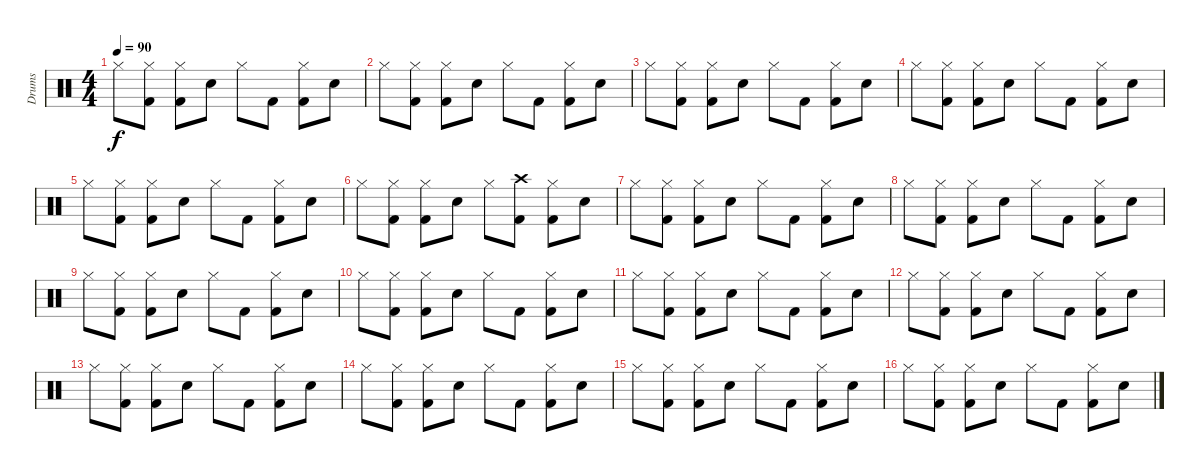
\track ("Drums" "Drums") {instrument percussion}
\staff {score}
\articulation defaults
\ts (4 4)
\tempo 90
\clef neutral
\ks c "Hi-Hat (closed)".8{dy f}
("Hi-Hat (closed)" "Kick (hit) 2").8 ("Hi-Hat (closed)" "Kick (hit) 2").8 "Snare (hit) 2".8 "Hi-Hat (closed)".8 "Kick (hit) 2".8 ("Hi-Hat (closed)" "Kick (hit) 2").8 "Snare (hit) 2".8 |
"Hi-Hat (closed)".8 ("Hi-Hat (closed)" "Kick (hit) 2").8 ("Hi-Hat (closed)" "Kick (hit) 2").8 "Snare (hit) 2".8 "Hi-Hat (closed)".8 "Kick (hit) 2".8 ("Hi-Hat (closed)" "Kick (hit) 2").8 "Snare (hit) 2".8 |
"Hi-Hat (closed)".8 ("Hi-Hat (closed)" "Kick (hit) 2").8 ("Hi-Hat (closed)" "Kick (hit) 2").8 "Snare (hit) 2".8 "Hi-Hat (closed)".8 "Kick (hit) 2".8 ("Hi-Hat (closed)" "Kick (hit) 2").8 "Snare (hit) 2".8 |
"Hi-Hat (closed)".8 ("Hi-Hat (closed)" "Kick (hit) 2").8 ("Hi-Hat (closed)" "Kick (hit) 2").8 "Snare (hit) 2".8 "Hi-Hat (closed)".8 "Kick (hit) 2".8 ("Hi-Hat (closed)" "Kick (hit) 2").8 "Snare (hit) 2".8 |
"Hi-Hat (closed)".8 ("Hi-Hat (closed)" "Kick (hit) 2").8 ("Hi-Hat (closed)" "Kick (hit) 2").8 "Snare (hit) 2".8 "Hi-Hat (closed)".8 "Kick (hit) 2".8 ("Hi-Hat (closed)" "Kick (hit) 2").8 "Snare (hit) 2".8 |
"Hi-Hat (closed)".8 ("Hi-Hat (closed)" "Kick (hit) 2").8 ("Hi-Hat (closed)" "Kick (hit) 2").8 "Snare (hit) 2".8 "Hi-Hat (closed)".8 ("Crash high (hit)" "Kick (hit) 2").8 ("Hi-Hat (closed)" "Kick (hit) 2").8 "Snare (hit) 2".8 |
"Hi-Hat (closed)".8 ("Hi-Hat (closed)" "Kick (hit) 2").8 ("Hi-Hat (closed)" "Kick (hit) 2").8 "Snare (hit) 2".8 "Hi-Hat (closed)".8 "Kick (hit) 2".8 ("Hi-Hat (closed)" "Kick (hit) 2").8 "Snare (hit) 2".8 |
"Hi-Hat (closed)".8 ("Hi-Hat (closed)" "Kick (hit) 2").8 ("Hi-Hat (closed)" "Kick (hit) 2").8 "Snare (hit) 2".8 "Hi-Hat (closed)".8 "Kick (hit) 2".8 ("Hi-Hat (closed)" "Kick (hit) 2").8 "Snare (hit) 2".8 |
"Hi-Hat (closed)".8 ("Hi-Hat (closed)" "Kick (hit) 2").8 ("Hi-Hat (closed)" "Kick (hit) 2").8 "Snare (hit) 2".8 "Hi-Hat (closed)".8 "Kick (hit) 2".8 ("Hi-Hat (closed)" "Kick (hit) 2").8 "Snare (hit) 2".8 |
"Hi-Hat (closed)".8 ("Hi-Hat (closed)" "Kick (hit) 2").8 ("Hi-Hat (closed)" "Kick (hit) 2").8 "Snare (hit) 2".8 "Hi-Hat (closed)".8 "Kick (hit) 2".8 ("Hi-Hat (closed)" "Kick (hit) 2").8 "Snare (hit) 2".8 |
"Hi-Hat (closed)".8 ("Hi-Hat (closed)" "Kick (hit) 2").8 ("Hi-Hat (closed)" "Kick (hit) 2").8 "Snare (hit) 2".8 "Hi-Hat (closed)".8 "Kick (hit) 2".8 ("Hi-Hat (closed)" "Kick (hit) 2").8 "Snare (hit) 2".8 |
"Hi-Hat (closed)".8 ("Hi-Hat (closed)" "Kick (hit) 2").8 ("Hi-Hat (closed)" "Kick (hit) 2").8 "Snare (hit) 2".8 "Hi-Hat (closed)".8 "Kick (hit) 2".8 ("Hi-Hat (closed)" "Kick (hit) 2").8 "Snare (hit) 2".8 |
"Hi-Hat (closed)".8 ("Hi-Hat (closed)" "Kick (hit) 2").8 ("Hi-Hat (closed)" "Kick (hit) 2").8 "Snare (hit) 2".8 "Hi-Hat (closed)".8 "Kick (hit) 2".8 ("Hi-Hat (closed)" "Kick (hit) 2").8 "Snare (hit) 2".8 |
"Hi-Hat (closed)".8 ("Hi-Hat (closed)" "Kick (hit) 2").8 ("Hi-Hat (closed)" "Kick (hit) 2").8 "Snare (hit) 2".8 "Hi-Hat (closed)".8 "Kick (hit) 2".8 ("Hi-Hat (closed)" "Kick (hit) 2").8 "Snare (hit) 2".8 |
"Hi-Hat (closed)".8 ("Hi-Hat (closed)" "Kick (hit) 2").8 ("Hi-Hat (closed)" "Kick (hit) 2").8 "Snare (hit) 2".8 "Hi-Hat (closed)".8 "Kick (hit) 2".8 ("Hi-Hat (closed)" "Kick (hit) 2").8 "Snare (hit) 2".8 |
"Hi-Hat (closed)".8 ("Hi-Hat (closed)" "Kick (hit) 2").8 ("Hi-Hat (closed)" "Kick (hit) 2").8 "Snare (hit) 2".8 "Hi-Hat (closed)".8 "Kick (hit) 2".8 ("Hi-Hat (closed)" "Kick (hit) 2").8 "Snare (hit) 2".8
